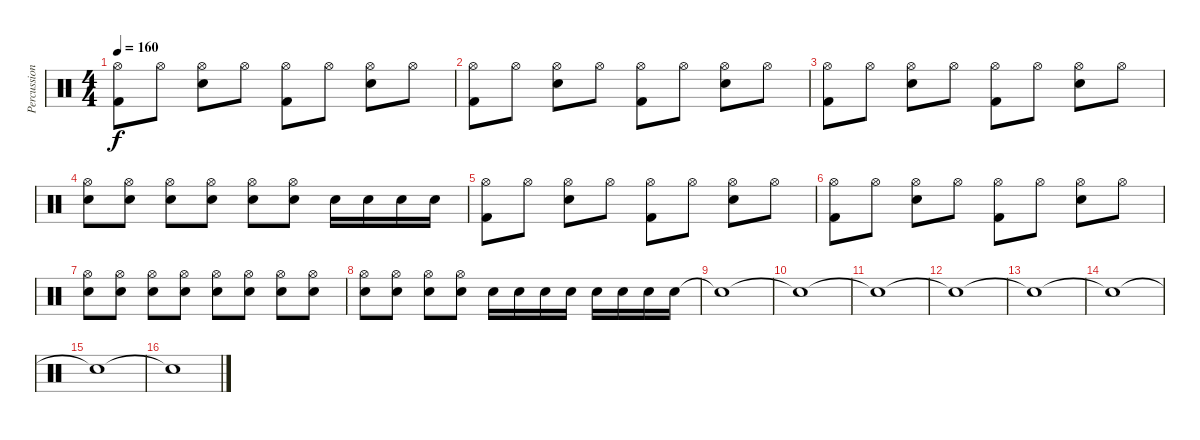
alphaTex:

\track ("Percussion" "Percussion") {instrument percussion}
\staff {score}
\articulation defaults
\ts (4 4)
\tempo 160
\clef neutral
\ks c
("Hi-Hat (open)" "Kick (hit) 2").8{dy f} "Hi-Hat (open)".8 ("Hi-Hat (open)" "Electric Snare (hit)").8 "Hi-Hat (open)".8 ("Hi-Hat (open)" "Kick (hit) 2").8 "Hi-Hat (open)".8 ("Hi-Hat (open)" "Electric Snare (hit)").8 "Hi-Hat (open)".8 |
("Hi-Hat (open)" "Kick (hit) 2").8 "Hi-Hat (open)".8 ("Hi-Hat (open)" "Electric Snare (hit)").8 "Hi-Hat (open)".8 ("Hi-Hat (open)" "Kick (hit) 2").8 "Hi-Hat (open)".8 ("Hi-Hat (open)" "Electric Snare (hit)").8 "Hi-Hat (open)".8 |
("Hi-Hat (open)" "Kick (hit) 2").8 "Hi-Hat (open)".8 ("Hi-Hat (open)" "Electric Snare (hit)").8 "Hi-Hat (open)".8 ("Hi-Hat (open)" "Kick (hit) 2").8 "Hi-Hat (open)".8 ("Hi-Hat (open)" "Electric Snare (hit)").8 "Hi-Hat (open)".8 |
("Hi-Hat (open)" "Electric Snare (hit)").8 ("Hi-Hat (open)" "Electric Snare (hit)").8 ("Hi-Hat (open)" "Electric Snare (hit)").8 ("Hi-Hat (open)" "Electric Snare (hit)").8 ("Hi-Hat (open)" "Electric Snare (hit)").8 ("Hi-Hat (open)" "Electric Snare (hit)").8 "Electric Snare (hit)".16 "Electric Snare (hit)".16 "Electric Snare (hit)".16 "Electric Snare (hit)".16 |
("Hi-Hat (open)" "Kick (hit) 2").8 "Hi-Hat (open)".8 ("Hi-Hat (open)" "Electric Snare (hit)").8 "Hi-Hat (open)".8 ("Hi-Hat (open)" "Kick (hit) 2").8 "Hi-Hat (open)".8 ("Hi-Hat (open)" "Electric Snare (hit)").8 "Hi-Hat (open)".8 |
("Hi-Hat (open)" "Kick (hit) 2").8 "Hi-Hat (open)".8 ("Hi-Hat (open)" "Electric Snare (hit)").8 "Hi-Hat (open)".8 ("Hi-Hat (open)" "Kick (hit) 2").8 "Hi-Hat (open)".8 ("Hi-Hat (open)" "Electric Snare (hit)").8 "Hi-Hat (open)".8 |
("Hi-Hat (open)" "Electric Snare (hit)").8 ("Hi-Hat (open)" "Electric Snare (hit)").8 ("Hi-Hat (open)" "Electric Snare (hit)").8 ("Hi-Hat (open)" "Electric Snare (hit)").8 ("Hi-Hat (open)" "Electric Snare (hit)").8 ("Hi-Hat (open)" "Electric Snare (hit)").8 ("Hi-Hat (open)" "Electric Snare (hit)").8 ("Hi-Hat (open)" "Electric Snare (hit)").8 |
("Hi-Hat (open)" "Electric Snare (hit)").8 ("Hi-Hat (open)" "Electric Snare (hit)").8 ("Hi-Hat (open)" "Electric Snare (hit)").8 ("Hi-Hat (open)" "Electric Snare (hit)").8 "Electric Snare (hit)".16 "Electric Snare (hit)".16 "Electric Snare (hit)".16 "Electric Snare (hit)".16 "Electric Snare (hit)".16 "Electric Snare (hit)".16 "Electric Snare (hit)".16 "Electric Snare (hit)".16 |
"Snare (hit)"{t}.1 |
"Snare (hit)"{t}.1 |
"Snare (hit)"{t}.1 |
"Snare (hit)"{t}.1 |
"Snare (hit)"{t}.1 |
"Snare (hit)"{t}.1 |
"Snare (hit)"{t}.1 |
"Snare (hit)"{t}.1
